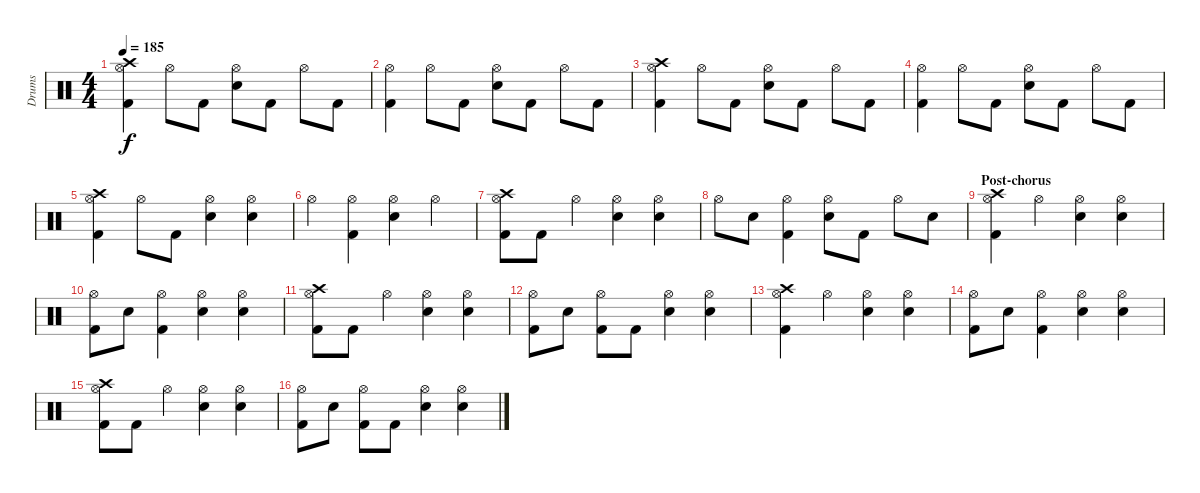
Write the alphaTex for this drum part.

\track ("Drums" "Drums") {instrument percussion}
\staff {score}
\articulation defaults
\ts (4 4)
\tempo 185
\clef neutral
\ks c
("Hi-Hat (open)" "Kick (hit) 2" "Crash high (hit)").4{dy f} "Hi-Hat (open)".8 "Kick (hit) 2".8 ("Hi-Hat (open)" "Electric Snare (hit)").8 "Kick (hit) 2".8 "Hi-Hat (open)".8 "Kick (hit) 2".8 |
("Hi-Hat (open)" "Kick (hit) 2").4 "Hi-Hat (open)".8 "Kick (hit) 2".8 ("Hi-Hat (open)" "Electric Snare (hit)").8 "Kick (hit) 2".8 "Hi-Hat (open)".8 "Kick (hit) 2".8 |
("Hi-Hat (open)" "Kick (hit) 2" "Crash high (hit)").4 "Hi-Hat (open)".8 "Kick (hit) 2".8 ("Hi-Hat (open)" "Electric Snare (hit)").8 "Kick (hit) 2".8 "Hi-Hat (open)".8 "Kick (hit) 2".8 |
("Hi-Hat (open)" "Kick (hit) 2").4 "Hi-Hat (open)".8 "Kick (hit) 2".8 ("Hi-Hat (open)" "Electric Snare (hit)").8 "Kick (hit) 2".8 "Hi-Hat (open)".8 "Kick (hit) 2".8 |
("Hi-Hat (open)" "Kick (hit) 2" "Crash high (hit)").4 "Hi-Hat (open)".8 "Kick (hit) 2".8 ("Hi-Hat (open)" "Electric Snare (hit)").4 ("Hi-Hat (open)" "Electric Snare (hit)").4 |
"Hi-Hat (open)".4 ("Hi-Hat (open)" "Kick (hit) 2").4 ("Hi-Hat (open)" "Electric Snare (hit)").4 "Hi-Hat (open)".4 |
("Hi-Hat (open)" "Kick (hit) 2" "Crash high (hit)").8 "Kick (hit) 2".8 "Hi-Hat (open)".4 ("Hi-Hat (open)" "Electric Snare (hit)").4 ("Hi-Hat (open)" "Electric Snare (hit)").4 |
"Hi-Hat (open)".8 "Electric Snare (hit)".8 ("Hi-Hat (open)" "Kick (hit) 2").4 ("Hi-Hat (open)" "Electric Snare (hit)").8 "Kick (hit) 2".8 "Hi-Hat (open)".8 "Electric Snare (hit)".8 |
\section ("" "Post-chorus")
("Hi-Hat (open)" "Kick (hit) 2" "Crash high (hit)").4 "Hi-Hat (open)".4 ("Hi-Hat (open)" "Electric Snare (hit)").4 ("Hi-Hat (open)" "Electric Snare (hit)").4 |
("Hi-Hat (open)" "Kick (hit) 2").8 "Electric Snare (hit)".8 ("Hi-Hat (open)" "Kick (hit) 2").4 ("Hi-Hat (open)" "Electric Snare (hit)").4 ("Hi-Hat (open)" "Electric Snare (hit)").4 |
("Hi-Hat (open)" "Kick (hit) 2" "Crash high (hit)").8 "Kick (hit) 2".8 "Hi-Hat (open)".4 ("Hi-Hat (open)" "Electric Snare (hit)").4 ("Hi-Hat (open)" "Electric Snare (hit)").4 |
("Hi-Hat (open)" "Kick (hit) 2").8 "Electric Snare (hit)".8 ("Hi-Hat (open)" "Kick (hit) 2").8 "Kick (hit) 2".8 ("Hi-Hat (open)" "Electric Snare (hit)").4 ("Hi-Hat (open)" "Electric Snare (hit)").4 |
("Hi-Hat (open)" "Kick (hit) 2" "Crash high (hit)").4 "Hi-Hat (open)".4 ("Hi-Hat (open)" "Electric Snare (hit)").4 ("Hi-Hat (open)" "Electric Snare (hit)").4 |
("Hi-Hat (open)" "Kick (hit) 2").8 "Electric Snare (hit)".8 ("Hi-Hat (open)" "Kick (hit) 2").4 ("Hi-Hat (open)" "Electric Snare (hit)").4 ("Hi-Hat (open)" "Electric Snare (hit)").4 |
("Hi-Hat (open)" "Kick (hit) 2" "Crash high (hit)").8 "Kick (hit) 2".8 "Hi-Hat (open)".4 ("Hi-Hat (open)" "Electric Snare (hit)").4 ("Hi-Hat (open)" "Electric Snare (hit)").4 |
("Hi-Hat (open)" "Kick (hit) 2").8 "Electric Snare (hit)".8 ("Hi-Hat (open)" "Kick (hit) 2").8 "Kick (hit) 2".8 ("Hi-Hat (open)" "Electric Snare (hit)").4 ("Hi-Hat (open)" "Electric Snare (hit)").4
